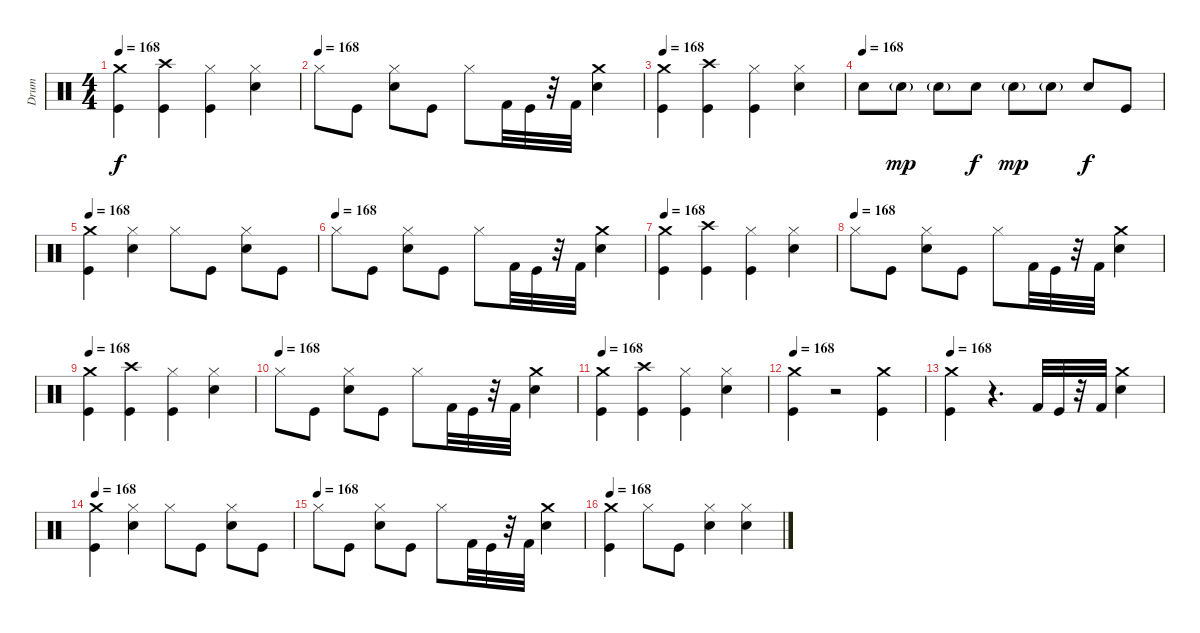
\track ("Drum" "Drum") {instrument percussion}
\staff {score}
\articulation defaults
\ts (4 4)
\tempo 168
\clef neutral
\ks c
("Crash medium (hit)" "Kick (hit)").4{dy f} ("Crash high (hit)" "Kick (hit)").4 ("Hi-Hat (closed)" "Kick (hit)").4 ("Hi-Hat (closed)" "Snare (hit) 2").4 |
\tempo (168)
"Hi-Hat (closed)".8 "Kick (hit)".8 ("Hi-Hat (closed)" "Snare (hit) 2").8 "Kick (hit)".8 "Hi-Hat (closed)".8 "Kick (hit) 2".32 "Kick (hit)".32 r.32 "Kick (hit) 2".32 ("Crash medium (hit)" "Snare (hit) 2").4 |
\tempo 168
("Crash medium (hit)" "Kick (hit)").4 ("Crash high (hit)" "Kick (hit)").4 ("Hi-Hat (closed)" "Kick (hit)").4 ("Hi-Hat (closed)" "Snare (hit) 2").4 |
\tempo (168)
"Snare (hit) 2".8 "Snare (hit) 2"{g}.8{dy mp} "Snare (hit) 2"{g}.8 "Snare (hit) 2".8{dy f} "Snare (hit) 2"{g}.8{dy mp} "Snare (hit) 2"{g}.8 "Snare (hit) 2".8{dy f} "Kick (hit)".8 |
\tempo 168
("Crash medium (hit)" "Kick (hit)").4 ("Hi-Hat (closed)" "Snare (hit) 2").4 "Hi-Hat (closed)".8 "Kick (hit)".8 ("Hi-Hat (closed)" "Snare (hit) 2").8 "Kick (hit)".8 |
\tempo (168)
"Hi-Hat (closed)".8 "Kick (hit)".8 ("Hi-Hat (closed)" "Snare (hit) 2").8 "Kick (hit)".8 "Hi-Hat (closed)".8 "Kick (hit) 2".32 "Kick (hit)".32 r.32 "Kick (hit) 2".32 ("Crash medium (hit)" "Snare (hit) 2").4 |
\tempo 168
("Crash medium (hit)" "Kick (hit)").4 ("Crash high (hit)" "Kick (hit)").4 ("Hi-Hat (closed)" "Kick (hit)").4 ("Hi-Hat (closed)" "Snare (hit) 2").4 |
\tempo (168)
"Hi-Hat (closed)".8 "Kick (hit)".8 ("Hi-Hat (closed)" "Snare (hit) 2").8 "Kick (hit)".8 "Hi-Hat (closed)".8 "Kick (hit) 2".32 "Kick (hit)".32 r.32 "Kick (hit) 2".32 ("Crash medium (hit)" "Snare (hit) 2").4 |
\tempo 168
("Crash medium (hit)" "Kick (hit)").4 ("Crash high (hit)" "Kick (hit)").4 ("Hi-Hat (closed)" "Kick (hit)").4 ("Hi-Hat (closed)" "Snare (hit) 2").4 |
\tempo (168)
"Hi-Hat (closed)".8 "Kick (hit)".8 ("Hi-Hat (closed)" "Snare (hit) 2").8 "Kick (hit)".8 "Hi-Hat (closed)".8 "Kick (hit) 2".32 "Kick (hit)".32 r.32 "Kick (hit) 2".32 ("Crash medium (hit)" "Snare (hit) 2").4 |
\tempo 168
("Crash medium (hit)" "Kick (hit)").4 ("Crash high (hit)" "Kick (hit)").4 ("Hi-Hat (closed)" "Kick (hit)").4 ("Hi-Hat (closed)" "Snare (hit) 2").4 |
\tempo 168
("Crash medium (hit)" "Kick (hit)").4 r.2 ("Crash medium (hit)" "Kick (hit)").4 |
\tempo 168
("Crash medium (hit)" "Kick (hit)").4 r.4{d} "Kick (hit) 2".32 "Kick (hit)".32 r.32 "Kick (hit) 2".32 ("Crash medium (hit)" "Snare (hit) 2").4 |
\tempo 168
("Crash medium (hit)" "Kick (hit)").4 ("Hi-Hat (closed)" "Snare (hit) 2").4 "Hi-Hat (closed)".8 "Kick (hit)".8 ("Hi-Hat (closed)" "Snare (hit) 2").8 "Kick (hit)".8 |
\tempo (168)
"Hi-Hat (closed)".8 "Kick (hit)".8 ("Hi-Hat (closed)" "Snare (hit) 2").8 "Kick (hit)".8 "Hi-Hat (closed)".8 "Kick (hit) 2".32 "Kick (hit)".32 r.32 "Kick (hit) 2".32 ("Crash medium (hit)" "Snare (hit) 2").4 |
\tempo 168
("Crash medium (hit)" "Kick (hit)").4 "Hi-Hat (closed)".8 "Kick (hit)".8 ("Hi-Hat (closed)" "Snare (hit) 2").4 ("Hi-Hat (closed)" "Snare (hit) 2").4
